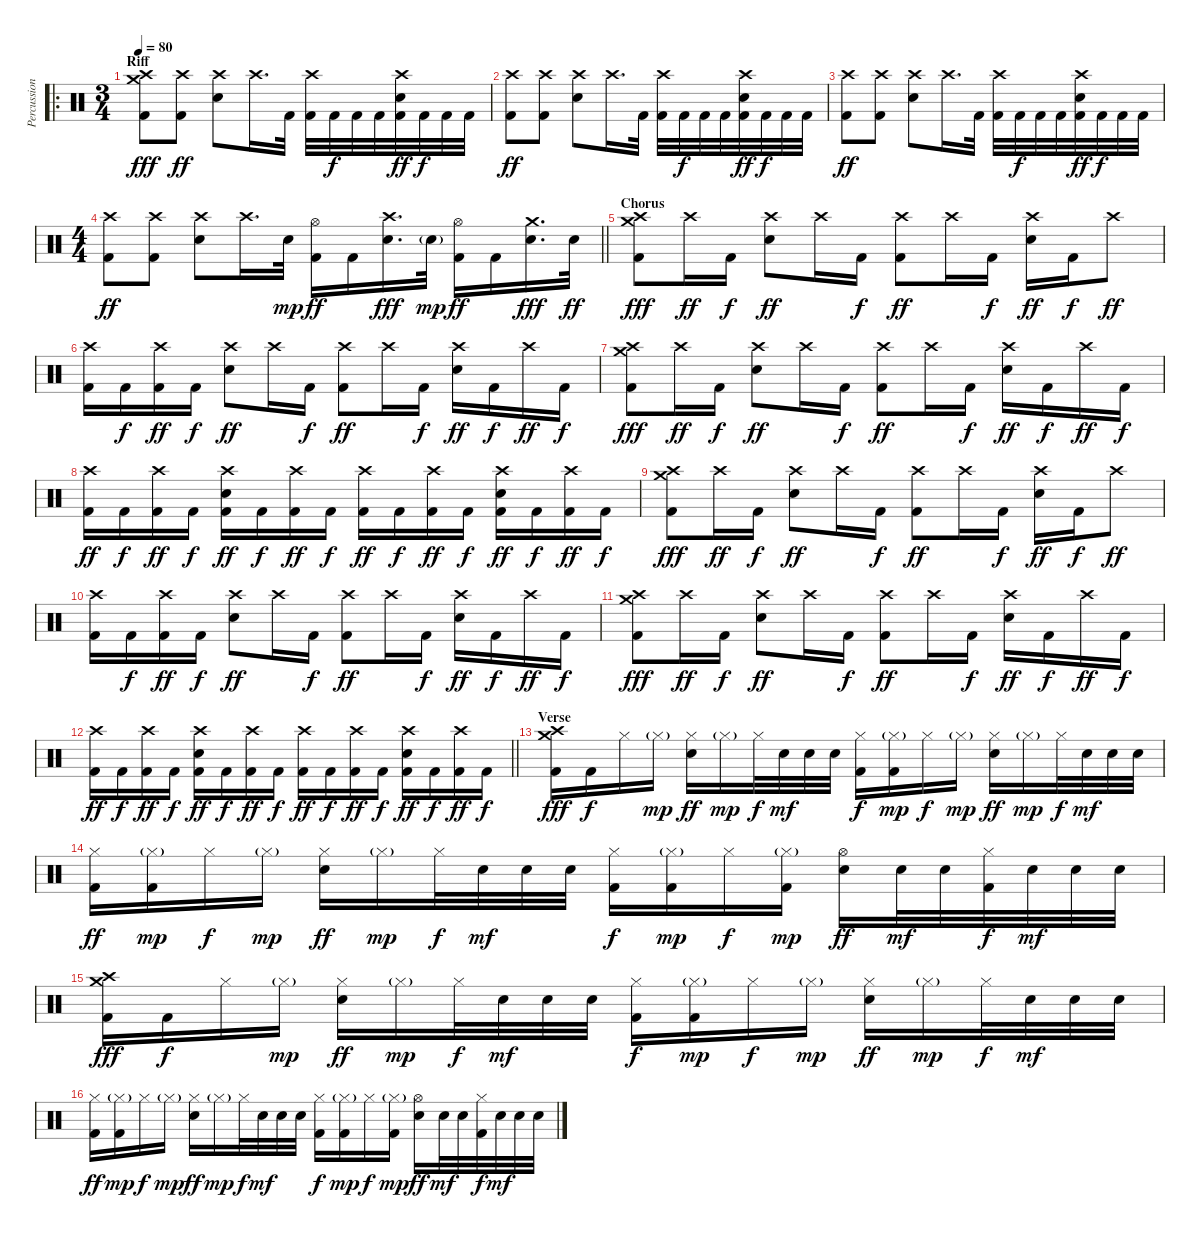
\track ("Percussion" "Percussion") {instrument percussion}
\staff {score}
\articulation defaults
\ro
\ts (3 4)
\section ("" "Riff")
\tempo 80
\clef neutral
\ks c
("Crash high (hit)" "Crash medium (hit)" "Kick (hit) 2").8{dy fff} ("Crash high (hit)" "Kick (hit) 2").8{dy ff} ("Crash high (hit)" "Electric Snare (hit)").8 "Crash high (hit)".16{d} "Kick (hit) 2".32 ("Crash high (hit)" "Kick (hit) 2").32 "Kick (hit) 2".32{dy f} "Kick (hit) 2".32 "Kick (hit) 2".32 ("Crash high (hit)" "Electric Snare (hit)" "Kick (hit) 2").32{dy ff} "Kick (hit) 2".32{dy f} "Kick (hit) 2".32 "Kick (hit) 2".32 |
("Crash high (hit)" "Kick (hit) 2").8{dy ff} ("Crash high (hit)" "Kick (hit) 2").8 ("Crash high (hit)" "Electric Snare (hit)").8 "Crash high (hit)".16{d} "Kick (hit) 2".32 ("Crash high (hit)" "Kick (hit) 2").32 "Kick (hit) 2".32{dy f} "Kick (hit) 2".32 "Kick (hit) 2".32 ("Crash high (hit)" "Electric Snare (hit)" "Kick (hit) 2").32{dy ff} "Kick (hit) 2".32{dy f} "Kick (hit) 2".32 "Kick (hit) 2".32 |
("Crash high (hit)" "Kick (hit) 2").8{dy ff} ("Crash high (hit)" "Kick (hit) 2").8 ("Crash high (hit)" "Electric Snare (hit)").8 "Crash high (hit)".16{d} "Kick (hit) 2".32 ("Crash high (hit)" "Kick (hit) 2").32 "Kick (hit) 2".32{dy f} "Kick (hit) 2".32 "Kick (hit) 2".32 ("Crash high (hit)" "Electric Snare (hit)" "Kick (hit) 2").32{dy ff} "Kick (hit) 2".32{dy f} "Kick (hit) 2".32 "Kick (hit) 2".32 |
\ts (4 4)
\barLineRight lightlight
("Crash high (hit)" "Kick (hit) 2").8{dy ff} ("Crash high (hit)" "Kick (hit) 2").8 ("Crash high (hit)" "Electric Snare (hit)").8 "Crash high (hit)".16{d} "Electric Snare (hit)".32{dy mp} ("Hi-Hat (open)" "Kick (hit) 2").16{dy ff} "Kick (hit) 2".16 ("Crash high (hit)" "Electric Snare (hit)").16{d dy fff} "Electric Snare (hit)"{g}.32{dy mp} ("Hi-Hat (open)" "Kick (hit) 2").16{dy ff} "Kick (hit) 2".16 ("Crash medium (hit)" "Electric Snare (hit)").16{d dy fff} "Electric Snare (hit)".32{dy ff} |
\section ("" "Chorus")
("Crash medium (hit)" "Crash high (hit)" "Kick (hit) 2").8{dy fff} "Crash high (hit)".16{dy ff} "Kick (hit) 2".16{dy f} ("Crash high (hit)" "Electric Snare (hit)").8{dy ff} "Crash high (hit)".16 "Kick (hit) 2".16{dy f} ("Crash high (hit)" "Kick (hit) 2").8{dy ff} "Crash high (hit)".16 "Kick (hit) 2".16{dy f} ("Crash high (hit)" "Electric Snare (hit)").16{dy ff} "Kick (hit) 2".16{dy f} "Crash high (hit)".8{dy ff} |
("Crash high (hit)" "Kick (hit) 2").16 "Kick (hit) 2".16{dy f} ("Crash high (hit)" "Kick (hit) 2").16{dy ff} "Kick (hit) 2".16{dy f} ("Crash high (hit)" "Electric Snare (hit)").8{dy ff} "Crash high (hit)".16 "Kick (hit) 2".16{dy f} ("Crash high (hit)" "Kick (hit) 2").8{dy ff} "Crash high (hit)".16 "Kick (hit) 2".16{dy f} ("Crash high (hit)" "Electric Snare (hit)").16{dy ff} "Kick (hit) 2".16{dy f} "Crash high (hit)".16{dy ff} "Kick (hit) 2".16{dy f} |
("Crash medium (hit)" "Crash high (hit)" "Kick (hit) 2").8{dy fff} "Crash high (hit)".16{dy ff} "Kick (hit) 2".16{dy f} ("Crash high (hit)" "Electric Snare (hit)").8{dy ff} "Crash high (hit)".16 "Kick (hit) 2".16{dy f} ("Crash high (hit)" "Kick (hit) 2").8{dy ff} "Crash high (hit)".16 "Kick (hit) 2".16{dy f} ("Crash high (hit)" "Electric Snare (hit)").16{dy ff} "Kick (hit) 2".16{dy f} "Crash high (hit)".16{dy ff} "Kick (hit) 2".16{dy f} |
("Crash high (hit)" "Kick (hit) 2").16{dy ff} "Kick (hit) 2".16{dy f} ("Crash high (hit)" "Kick (hit) 2").16{dy ff} "Kick (hit) 2".16{dy f} ("Crash high (hit)" "Electric Snare (hit)" "Kick (hit) 2").16{dy ff} "Kick (hit) 2".16{dy f} ("Crash high (hit)" "Kick (hit) 2").16{dy ff} "Kick (hit) 2".16{dy f} ("Crash high (hit)" "Kick (hit) 2").16{dy ff} "Kick (hit) 2".16{dy f} ("Crash high (hit)" "Kick (hit) 2").16{dy ff} "Kick (hit) 2".16{dy f} ("Crash high (hit)" "Electric Snare (hit)" "Kick (hit) 2").16{dy ff} "Kick (hit) 2".16{dy f} ("Crash high (hit)" "Kick (hit) 2").16{dy ff} "Kick (hit) 2".16{dy f} |
("Crash medium (hit)" "Crash high (hit)" "Kick (hit) 2").8{dy fff} "Crash high (hit)".16{dy ff} "Kick (hit) 2".16{dy f} ("Crash high (hit)" "Electric Snare (hit)").8{dy ff} "Crash high (hit)".16 "Kick (hit) 2".16{dy f} ("Crash high (hit)" "Kick (hit) 2").8{dy ff} "Crash high (hit)".16 "Kick (hit) 2".16{dy f} ("Crash high (hit)" "Electric Snare (hit)").16{dy ff} "Kick (hit) 2".16{dy f} "Crash high (hit)".8{dy ff} |
("Crash high (hit)" "Kick (hit) 2").16 "Kick (hit) 2".16{dy f} ("Crash high (hit)" "Kick (hit) 2").16{dy ff} "Kick (hit) 2".16{dy f} ("Crash high (hit)" "Electric Snare (hit)").8{dy ff} "Crash high (hit)".16 "Kick (hit) 2".16{dy f} ("Crash high (hit)" "Kick (hit) 2").8{dy ff} "Crash high (hit)".16 "Kick (hit) 2".16{dy f} ("Crash high (hit)" "Electric Snare (hit)").16{dy ff} "Kick (hit) 2".16{dy f} "Crash high (hit)".16{dy ff} "Kick (hit) 2".16{dy f} |
("Crash medium (hit)" "Crash high (hit)" "Kick (hit) 2").8{dy fff} "Crash high (hit)".16{dy ff} "Kick (hit) 2".16{dy f} ("Crash high (hit)" "Electric Snare (hit)").8{dy ff} "Crash high (hit)".16 "Kick (hit) 2".16{dy f} ("Crash high (hit)" "Kick (hit) 2").8{dy ff} "Crash high (hit)".16 "Kick (hit) 2".16{dy f} ("Crash high (hit)" "Electric Snare (hit)").16{dy ff} "Kick (hit) 2".16{dy f} "Crash high (hit)".16{dy ff} "Kick (hit) 2".16{dy f} |
\barLineRight lightlight
("Crash high (hit)" "Kick (hit) 2").16{dy ff} "Kick (hit) 2".16{dy f} ("Crash high (hit)" "Kick (hit) 2").16{dy ff} "Kick (hit) 2".16{dy f} ("Crash high (hit)" "Electric Snare (hit)" "Kick (hit) 2").16{dy ff} "Kick (hit) 2".16{dy f} ("Crash high (hit)" "Kick (hit) 2").16{dy ff} "Kick (hit) 2".16{dy f} ("Crash high (hit)" "Kick (hit) 2").16{dy ff} "Kick (hit) 2".16{dy f} ("Crash high (hit)" "Kick (hit) 2").16{dy ff} "Kick (hit) 2".16{dy f} ("Crash high (hit)" "Electric Snare (hit)" "Kick (hit) 2").16{dy ff} "Kick (hit) 2".16{dy f} ("Crash high (hit)" "Kick (hit) 2").16{dy ff} "Kick (hit) 2".16{dy f} |
\section ("" "Verse")
("Crash high (hit)" "Crash medium (hit)" "Kick (hit) 2").16{dy fff} "Kick (hit) 2".16{dy f} "Hi-Hat (closed)".16 "Hi-Hat (closed)"{g}.16{dy mp} ("Hi-Hat (closed)" "Electric Snare (hit)").16{dy ff} "Hi-Hat (closed)"{g}.16{dy mp} "Hi-Hat (closed)".32{dy f} "Electric Snare (hit)".32{dy mf} "Electric Snare (hit)".32 "Electric Snare (hit)".32 ("Hi-Hat (closed)" "Kick (hit) 2").16{dy f} ("Hi-Hat (closed)"{g} "Kick (hit) 2").16{dy mp} "Hi-Hat (closed)".16{dy f} "Hi-Hat (closed)"{g}.16{dy mp} ("Hi-Hat (closed)" "Electric Snare (hit)").16{dy ff} "Hi-Hat (closed)"{g}.16{dy mp} "Hi-Hat (closed)".32{dy f} "Electric Snare (hit)".32{dy mf} "Electric Snare (hit)".32 "Electric Snare (hit)".32 |
("Hi-Hat (closed)" "Kick (hit) 2").16{dy ff} ("Hi-Hat (closed)"{g} "Kick (hit) 2").16{dy mp} "Hi-Hat (closed)".16{dy f} "Hi-Hat (closed)"{g}.16{dy mp} ("Hi-Hat (closed)" "Electric Snare (hit)").16{dy ff} "Hi-Hat (closed)"{g}.16{dy mp} "Hi-Hat (closed)".32{dy f} "Electric Snare (hit)".32{dy mf} "Electric Snare (hit)".32 "Electric Snare (hit)".32 ("Hi-Hat (closed)" "Kick (hit) 2").16{dy f} ("Hi-Hat (closed)"{g} "Kick (hit) 2").16{dy mp} "Hi-Hat (closed)".16{dy f} ("Hi-Hat (closed)"{g} "Kick (hit) 2").16{dy mp} ("Hi-Hat (open)" "Electric Snare (hit)").16{dy ff} "Electric Snare (hit)".32{dy mf} "Electric Snare (hit)".32 ("Hi-Hat (closed)" "Kick (hit) 2").32{dy f} "Electric Snare (hit)".32{dy mf} "Electric Snare (hit)".32 "Electric Snare (hit)".32 |
("Crash high (hit)" "Crash medium (hit)" "Kick (hit) 2").16{dy fff} "Kick (hit) 2".16{dy f} "Hi-Hat (closed)".16 "Hi-Hat (closed)"{g}.16{dy mp} ("Hi-Hat (closed)" "Electric Snare (hit)").16{dy ff} "Hi-Hat (closed)"{g}.16{dy mp} "Hi-Hat (closed)".32{dy f} "Electric Snare (hit)".32{dy mf} "Electric Snare (hit)".32 "Electric Snare (hit)".32 ("Hi-Hat (closed)" "Kick (hit) 2").16{dy f} ("Hi-Hat (closed)"{g} "Kick (hit) 2").16{dy mp} "Hi-Hat (closed)".16{dy f} "Hi-Hat (closed)"{g}.16{dy mp} ("Hi-Hat (closed)" "Electric Snare (hit)").16{dy ff} "Hi-Hat (closed)"{g}.16{dy mp} "Hi-Hat (closed)".32{dy f} "Electric Snare (hit)".32{dy mf} "Electric Snare (hit)".32 "Electric Snare (hit)".32 |
("Hi-Hat (closed)" "Kick (hit) 2").16{dy ff} ("Hi-Hat (closed)"{g} "Kick (hit) 2").16{dy mp} "Hi-Hat (closed)".16{dy f} "Hi-Hat (closed)"{g}.16{dy mp} ("Hi-Hat (closed)" "Electric Snare (hit)").16{dy ff} "Hi-Hat (closed)"{g}.16{dy mp} "Hi-Hat (closed)".32{dy f} "Electric Snare (hit)".32{dy mf} "Electric Snare (hit)".32 "Electric Snare (hit)".32 ("Hi-Hat (closed)" "Kick (hit) 2").16{dy f} ("Hi-Hat (closed)"{g} "Kick (hit) 2").16{dy mp} "Hi-Hat (closed)".16{dy f} ("Hi-Hat (closed)"{g} "Kick (hit) 2").16{dy mp} ("Hi-Hat (open)" "Electric Snare (hit)").16{dy ff} "Electric Snare (hit)".32{dy mf} "Electric Snare (hit)".32 ("Hi-Hat (closed)" "Kick (hit) 2").32{dy f} "Electric Snare (hit)".32{dy mf} "Electric Snare (hit)".32 "Electric Snare (hit)".32
